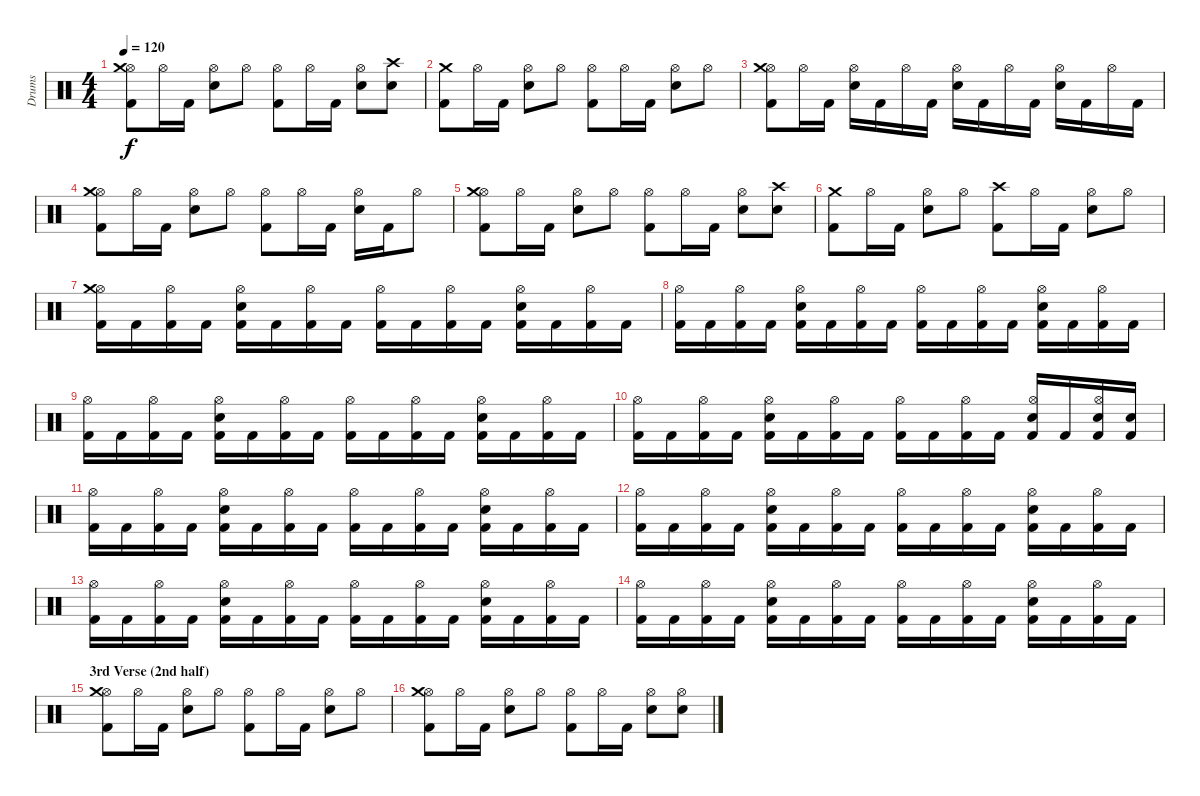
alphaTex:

\track ("Drums" "Drums") {instrument percussion}
\staff {score}
\articulation defaults
\ts (4 4)
\tempo 120
\clef neutral
\ks c
("Kick (hit) 2" "Hi-Hat (open)" "Crash medium (hit)").8{dy f} "Hi-Hat (open)".16 "Kick (hit) 2".16 ("Electric Snare (hit)" "Hi-Hat (open)").8 "Hi-Hat (open)".8 ("Kick (hit) 2" "Hi-Hat (open)").8 "Hi-Hat (open)".16 "Kick (hit) 2".16 ("Electric Snare (hit)" "Hi-Hat (open)").8 ("Electric Snare (hit)" "Crash high (hit)").8 |
("Kick (hit) 2" "Crash medium (hit)").8 "Hi-Hat (open)".16 "Kick (hit) 2".16 ("Electric Snare (hit)" "Hi-Hat (open)").8 "Hi-Hat (open)".8 ("Kick (hit) 2" "Hi-Hat (open)").8 "Hi-Hat (open)".16 "Kick (hit) 2".16 ("Electric Snare (hit)" "Hi-Hat (open)").8 "Hi-Hat (open)".8 |
("Kick (hit) 2" "Hi-Hat (open)" "Crash medium (hit)").8 "Hi-Hat (open)".16 "Kick (hit) 2".16 ("Electric Snare (hit)" "Hi-Hat (open)").16 "Kick (hit) 2".16 "Hi-Hat (open)".16 "Kick (hit) 2".16 ("Electric Snare (hit)" "Hi-Hat (open)").16 "Kick (hit) 2".16 "Hi-Hat (open)".16 "Kick (hit) 2".16 ("Electric Snare (hit)" "Hi-Hat (open)").16 "Kick (hit) 2".16 "Hi-Hat (open)".16 "Kick (hit) 2".16 |
("Kick (hit) 2" "Hi-Hat (open)" "Crash medium (hit)").8 "Hi-Hat (open)".16 "Kick (hit) 2".16 ("Electric Snare (hit)" "Hi-Hat (open)").8 "Hi-Hat (open)".8 ("Kick (hit) 2" "Hi-Hat (open)").8 "Hi-Hat (open)".16 "Kick (hit) 2".16 ("Electric Snare (hit)" "Hi-Hat (open)").16 "Kick (hit) 2".16 "Hi-Hat (open)".8 |
("Kick (hit) 2" "Hi-Hat (open)" "Crash medium (hit)").8 "Hi-Hat (open)".16 "Kick (hit) 2".16 ("Electric Snare (hit)" "Hi-Hat (open)").8 "Hi-Hat (open)".8 ("Kick (hit) 2" "Hi-Hat (open)").8 "Hi-Hat (open)".16 "Kick (hit) 2".16 ("Electric Snare (hit)" "Hi-Hat (open)").8 ("Electric Snare (hit)" "Crash high (hit)").8 |
("Kick (hit) 2" "Crash medium (hit)").8 "Hi-Hat (open)".16 "Kick (hit) 2".16 ("Electric Snare (hit)" "Hi-Hat (open)").8 "Hi-Hat (open)".8 ("Kick (hit) 2" "Crash high (hit)").8 "Hi-Hat (open)".16 "Kick (hit) 2".16 ("Electric Snare (hit)" "Hi-Hat (open)").8 "Hi-Hat (open)".8 |
("Kick (hit) 2" "Hi-Hat (open)" "Crash medium (hit)").16 "Kick (hit) 2".16 ("Kick (hit) 2" "Hi-Hat (open)").16 "Kick (hit) 2".16 ("Kick (hit) 2" "Electric Snare (hit)" "Hi-Hat (open)").16 "Kick (hit) 2".16 ("Kick (hit) 2" "Hi-Hat (open)").16 "Kick (hit) 2".16 ("Kick (hit) 2" "Hi-Hat (open)").16 "Kick (hit) 2".16 ("Kick (hit) 2" "Hi-Hat (open)").16 "Kick (hit) 2".16 ("Kick (hit) 2" "Electric Snare (hit)" "Hi-Hat (open)").16 "Kick (hit) 2".16 ("Kick (hit) 2" "Hi-Hat (open)").16 "Kick (hit) 2".16 |
("Kick (hit) 2" "Hi-Hat (open)").16 "Kick (hit) 2".16 ("Kick (hit) 2" "Hi-Hat (open)").16 "Kick (hit) 2".16 ("Kick (hit) 2" "Electric Snare (hit)" "Hi-Hat (open)").16 "Kick (hit) 2".16 ("Kick (hit) 2" "Hi-Hat (open)").16 "Kick (hit) 2".16 ("Kick (hit) 2" "Hi-Hat (open)").16 "Kick (hit) 2".16 ("Kick (hit) 2" "Hi-Hat (open)").16 "Kick (hit) 2".16 ("Kick (hit) 2" "Electric Snare (hit)" "Hi-Hat (open)").16 "Kick (hit) 2".16 ("Kick (hit) 2" "Hi-Hat (open)").16 "Kick (hit) 2".16 |
("Kick (hit) 2" "Hi-Hat (open)").16 "Kick (hit) 2".16 ("Kick (hit) 2" "Hi-Hat (open)").16 "Kick (hit) 2".16 ("Kick (hit) 2" "Electric Snare (hit)" "Hi-Hat (open)").16 "Kick (hit) 2".16 ("Kick (hit) 2" "Hi-Hat (open)").16 "Kick (hit) 2".16 ("Kick (hit) 2" "Hi-Hat (open)").16 "Kick (hit) 2".16 ("Kick (hit) 2" "Hi-Hat (open)").16 "Kick (hit) 2".16 ("Kick (hit) 2" "Electric Snare (hit)" "Hi-Hat (open)").16 "Kick (hit) 2".16 ("Kick (hit) 2" "Hi-Hat (open)").16 "Kick (hit) 2".16 |
("Kick (hit) 2" "Hi-Hat (open)").16 "Kick (hit) 2".16 ("Kick (hit) 2" "Hi-Hat (open)").16 "Kick (hit) 2".16 ("Kick (hit) 2" "Electric Snare (hit)" "Hi-Hat (open)").16 "Kick (hit) 2".16 ("Kick (hit) 2" "Hi-Hat (open)").16 "Kick (hit) 2".16 ("Kick (hit) 2" "Hi-Hat (open)").16 "Kick (hit) 2".16 ("Kick (hit) 2" "Hi-Hat (open)").16 "Kick (hit) 2".16 ("Kick (hit) 2" "Electric Snare (hit)" "Hi-Hat (open)").16 "Kick (hit) 2".16 ("Kick (hit) 2" "Electric Snare (hit)" "Hi-Hat (open)").16 ("Kick (hit) 2" "Electric Snare (hit)").16 |
("Kick (hit) 2" "Hi-Hat (open)").16 "Kick (hit) 2".16 ("Kick (hit) 2" "Hi-Hat (open)").16 "Kick (hit) 2".16 ("Kick (hit) 2" "Electric Snare (hit)" "Hi-Hat (open)").16 "Kick (hit) 2".16 ("Kick (hit) 2" "Hi-Hat (open)").16 "Kick (hit) 2".16 ("Kick (hit) 2" "Hi-Hat (open)").16 "Kick (hit) 2".16 ("Kick (hit) 2" "Hi-Hat (open)").16 "Kick (hit) 2".16 ("Kick (hit) 2" "Electric Snare (hit)" "Hi-Hat (open)").16 "Kick (hit) 2".16 ("Kick (hit) 2" "Hi-Hat (open)").16 "Kick (hit) 2".16 |
("Kick (hit) 2" "Hi-Hat (open)").16 "Kick (hit) 2".16 ("Kick (hit) 2" "Hi-Hat (open)").16 "Kick (hit) 2".16 ("Kick (hit) 2" "Electric Snare (hit)" "Hi-Hat (open)").16 "Kick (hit) 2".16 ("Kick (hit) 2" "Hi-Hat (open)").16 "Kick (hit) 2".16 ("Kick (hit) 2" "Hi-Hat (open)").16 "Kick (hit) 2".16 ("Kick (hit) 2" "Hi-Hat (open)").16 "Kick (hit) 2".16 ("Kick (hit) 2" "Electric Snare (hit)" "Hi-Hat (open)").16 "Kick (hit) 2".16 ("Kick (hit) 2" "Hi-Hat (open)").16 "Kick (hit) 2".16 |
("Kick (hit) 2" "Hi-Hat (open)").16 "Kick (hit) 2".16 ("Kick (hit) 2" "Hi-Hat (open)").16 "Kick (hit) 2".16 ("Kick (hit) 2" "Electric Snare (hit)" "Hi-Hat (open)").16 "Kick (hit) 2".16 ("Kick (hit) 2" "Hi-Hat (open)").16 "Kick (hit) 2".16 ("Kick (hit) 2" "Hi-Hat (open)").16 "Kick (hit) 2".16 ("Kick (hit) 2" "Hi-Hat (open)").16 "Kick (hit) 2".16 ("Kick (hit) 2" "Electric Snare (hit)" "Hi-Hat (open)").16 "Kick (hit) 2".16 ("Kick (hit) 2" "Hi-Hat (open)").16 "Kick (hit) 2".16 |
("Kick (hit) 2" "Hi-Hat (open)").16 "Kick (hit) 2".16 ("Kick (hit) 2" "Hi-Hat (open)").16 "Kick (hit) 2".16 ("Kick (hit) 2" "Electric Snare (hit)" "Hi-Hat (open)").16 "Kick (hit) 2".16 ("Kick (hit) 2" "Hi-Hat (open)").16 "Kick (hit) 2".16 ("Kick (hit) 2" "Hi-Hat (open)").16 "Kick (hit) 2".16 ("Kick (hit) 2" "Hi-Hat (open)").16 "Kick (hit) 2".16 ("Kick (hit) 2" "Electric Snare (hit)" "Hi-Hat (open)").16 "Kick (hit) 2".16 ("Kick (hit) 2" "Hi-Hat (open)").16 "Kick (hit) 2".16 |
\section ("" "3rd Verse (2nd half)")
("Kick (hit) 2" "Hi-Hat (open)" "Crash medium (hit)").8 "Hi-Hat (open)".16 "Kick (hit) 2".16 ("Electric Snare (hit)" "Hi-Hat (open)").8 "Hi-Hat (open)".8 ("Kick (hit) 2" "Hi-Hat (open)").8 "Hi-Hat (open)".16 "Kick (hit) 2".16 ("Electric Snare (hit)" "Hi-Hat (open)").8 "Hi-Hat (open)".8 |
("Kick (hit) 2" "Hi-Hat (open)" "Crash medium (hit)").8 "Hi-Hat (open)".16 "Kick (hit) 2".16 ("Electric Snare (hit)" "Hi-Hat (open)").8 "Hi-Hat (open)".8 ("Kick (hit) 2" "Hi-Hat (open)").8 "Hi-Hat (open)".16 "Kick (hit) 2".16 ("Electric Snare (hit)" "Hi-Hat (open)").8 ("Electric Snare (hit)" "Hi-Hat (open)").8
